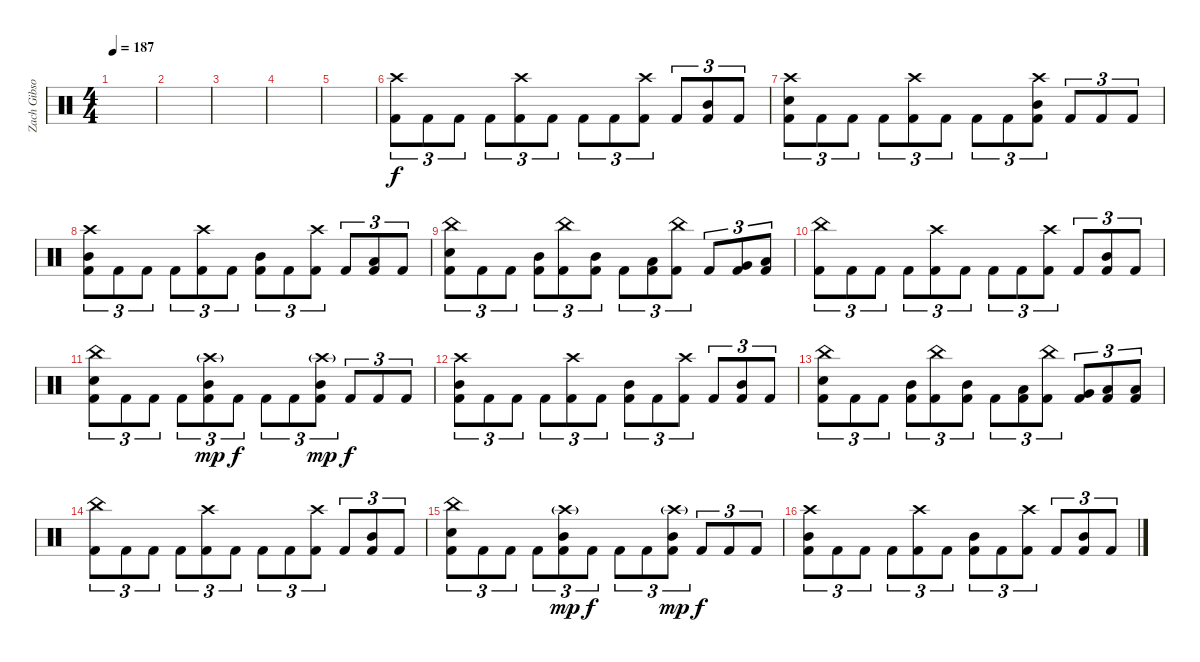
\track ("Zach Gibson (Ex-Drums)" "Zach Gibso") {instrument percussion}
\staff {score}
\articulation defaults
\ts (4 4)
\tempo 187
\clef neutral
\ks c
|
|
|
|
|
("Crash high (hit)" "Kick (hit) 2").8{tu (3 2)} "Kick (hit) 2".8{tu (3 2)} "Kick (hit) 2".8{tu (3 2)} "Kick (hit) 2".8{tu (3 2)} ("Crash high (hit)" "Kick (hit) 2").8{tu (3 2)} "Kick (hit) 2".8{tu (3 2)} "Kick (hit) 2".8{tu (3 2)} "Kick (hit) 2".8{tu (3 2)} ("Crash high (hit)" "Kick (hit) 2").8{tu (3 2)} "Kick (hit) 2".8{tu (3 2)} ("Mid Tom (hit)" "Kick (hit) 2").8{tu (3 2)} "Kick (hit) 2".8{tu (3 2)} |
("Snare (hit) 2" "Crash high (hit)" "Kick (hit) 2").8{tu (3 2)} "Kick (hit) 2".8{tu (3 2)} "Kick (hit) 2".8{tu (3 2)} "Kick (hit) 2".8{tu (3 2)} ("Crash high (hit)" "Kick (hit) 2").8{tu (3 2)} "Kick (hit) 2".8{tu (3 2)} "Kick (hit) 2".8{tu (3 2)} "Kick (hit) 2".8{tu (3 2)} ("Mid Tom (hit)" "Crash high (hit)" "Kick (hit) 2").8{tu (3 2)} "Kick (hit) 2".8{tu (3 2)} "Kick (hit) 2".8{tu (3 2)} "Kick (hit) 2".8{tu (3 2)} |
("Mid Tom (hit)" "Crash high (hit)" "Kick (hit) 2").8{tu (3 2)} "Kick (hit) 2".8{tu (3 2)} "Kick (hit) 2".8{tu (3 2)} "Kick (hit) 2".8{tu (3 2)} ("Crash high (hit)" "Kick (hit) 2").8{tu (3 2)} "Kick (hit) 2".8{tu (3 2)} ("Mid Tom (hit)" "Kick (hit) 2").8{tu (3 2)} "Kick (hit) 2".8{tu (3 2)} ("Crash high (hit)" "Kick (hit) 2").8{tu (3 2)} "Kick (hit) 2".8{tu (3 2)} ("Low Tom (hit)" "Kick (hit) 2").8{tu (3 2)} "Kick (hit) 2".8{tu (3 2)} |
("Kick (hit) 2" "China (hit)" "Snare (hit) 2").8{tu (3 2)} "Kick (hit) 2".8{tu (3 2)} "Kick (hit) 2".8{tu (3 2)} ("Mid Tom (hit)" "Kick (hit) 2").8{tu (3 2)} ("China (hit)" "Kick (hit) 2").8{tu (3 2)} ("Mid Tom (hit)" "Kick (hit) 2").8{tu (3 2)} "Kick (hit) 2".8{tu (3 2)} ("Low Tom (hit)" "Kick (hit) 2").8{tu (3 2)} ("China (hit)" "Kick (hit) 2").8{tu (3 2)} "Kick (hit) 2".8{tu (3 2)} ("Very Low Tom (hit)" "Kick (hit) 2").8{tu (3 2)} ("Low Floor Tom (hit)" "Kick (hit) 2").8{tu (3 2)} |
("China (hit)" "Kick (hit) 2").8{tu (3 2)} "Kick (hit) 2".8{tu (3 2)} "Kick (hit) 2".8{tu (3 2)} "Kick (hit) 2".8{tu (3 2)} ("Crash high (hit)" "Kick (hit) 2").8{tu (3 2)} "Kick (hit) 2".8{tu (3 2)} "Kick (hit) 2".8{tu (3 2)} "Kick (hit) 2".8{tu (3 2)} ("Crash high (hit)" "Kick (hit) 2").8{tu (3 2)} "Kick (hit) 2".8{tu (3 2)} ("Mid Tom (hit)" "Kick (hit) 2").8{tu (3 2)} "Kick (hit) 2".8{tu (3 2)} |
("Snare (hit) 2" "China (hit)" "Kick (hit) 2").8{tu (3 2)} "Kick (hit) 2".8{tu (3 2)} "Kick (hit) 2".8{tu (3 2)} "Kick (hit) 2".8{tu (3 2)} ("Mid Tom (hit)" "Crash high (hit)"{g} "Kick (hit) 2").8{tu (3 2) dy mp} "Kick (hit) 2".8{tu (3 2) dy f} "Kick (hit) 2".8{tu (3 2)} "Kick (hit) 2".8{tu (3 2)} ("Mid Tom (hit)" "Crash high (hit)"{g} "Kick (hit) 2").8{tu (3 2) dy mp} "Kick (hit) 2".8{tu (3 2) dy f} "Kick (hit) 2".8{tu (3 2)} "Kick (hit) 2".8{tu (3 2)} |
("Crash high (hit)" "Mid Tom (hit)" "Kick (hit) 2").8{tu (3 2)} "Kick (hit) 2".8{tu (3 2)} "Kick (hit) 2".8{tu (3 2)} "Kick (hit) 2".8{tu (3 2)} ("Crash high (hit)" "Kick (hit) 2").8{tu (3 2)} "Kick (hit) 2".8{tu (3 2)} ("Mid Tom (hit)" "Kick (hit) 2").8{tu (3 2)} "Kick (hit) 2".8{tu (3 2)} ("Crash high (hit)" "Kick (hit) 2").8{tu (3 2)} "Kick (hit) 2".8{tu (3 2)} ("Mid Tom (hit)" "Kick (hit) 2").8{tu (3 2)} "Kick (hit) 2".8{tu (3 2)} |
("Snare (hit) 2" "China (hit)" "Kick (hit) 2").8{tu (3 2)} "Kick (hit) 2".8{tu (3 2)} "Kick (hit) 2".8{tu (3 2)} ("Mid Tom (hit)" "Kick (hit) 2").8{tu (3 2)} ("China (hit)" "Kick (hit) 2").8{tu (3 2)} ("Mid Tom (hit)" "Kick (hit) 2").8{tu (3 2)} "Kick (hit) 2".8{tu (3 2)} ("Low Tom (hit)" "Kick (hit) 2").8{tu (3 2)} ("China (hit)" "Kick (hit) 2").8{tu (3 2)} ("Very Low Tom (hit)" "Kick (hit) 2").8{tu (3 2)} ("Low Floor Tom (hit)" "Kick (hit) 2").8{tu (3 2)} ("Low Floor Tom (hit)" "Kick (hit) 2").8{tu (3 2)} |
("China (hit)" "Kick (hit) 2").8{tu (3 2)} "Kick (hit) 2".8{tu (3 2)} "Kick (hit) 2".8{tu (3 2)} "Kick (hit) 2".8{tu (3 2)} ("Crash high (hit)" "Kick (hit) 2").8{tu (3 2)} "Kick (hit) 2".8{tu (3 2)} "Kick (hit) 2".8{tu (3 2)} "Kick (hit) 2".8{tu (3 2)} ("Crash high (hit)" "Kick (hit) 2").8{tu (3 2)} "Kick (hit) 2".8{tu (3 2)} ("Mid Tom (hit)" "Kick (hit) 2").8{tu (3 2)} "Kick (hit) 2".8{tu (3 2)} |
("Snare (hit) 2" "China (hit)" "Kick (hit) 2").8{tu (3 2)} "Kick (hit) 2".8{tu (3 2)} "Kick (hit) 2".8{tu (3 2)} "Kick (hit) 2".8{tu (3 2)} ("Mid Tom (hit)" "Crash high (hit)"{g} "Kick (hit) 2").8{tu (3 2) dy mp} "Kick (hit) 2".8{tu (3 2) dy f} "Kick (hit) 2".8{tu (3 2)} "Kick (hit) 2".8{tu (3 2)} ("Mid Tom (hit)" "Crash high (hit)"{g} "Kick (hit) 2").8{tu (3 2) dy mp} "Kick (hit) 2".8{tu (3 2) dy f} "Kick (hit) 2".8{tu (3 2)} "Kick (hit) 2".8{tu (3 2)} |
("Crash high (hit)" "Mid Tom (hit)" "Kick (hit) 2").8{tu (3 2)} "Kick (hit) 2".8{tu (3 2)} "Kick (hit) 2".8{tu (3 2)} "Kick (hit) 2".8{tu (3 2)} ("Crash high (hit)" "Kick (hit) 2").8{tu (3 2)} "Kick (hit) 2".8{tu (3 2)} ("Mid Tom (hit)" "Kick (hit) 2").8{tu (3 2)} "Kick (hit) 2".8{tu (3 2)} ("Crash high (hit)" "Kick (hit) 2").8{tu (3 2)} "Kick (hit) 2".8{tu (3 2)} ("Mid Tom (hit)" "Kick (hit) 2").8{tu (3 2)} "Kick (hit) 2".8{tu (3 2)}
